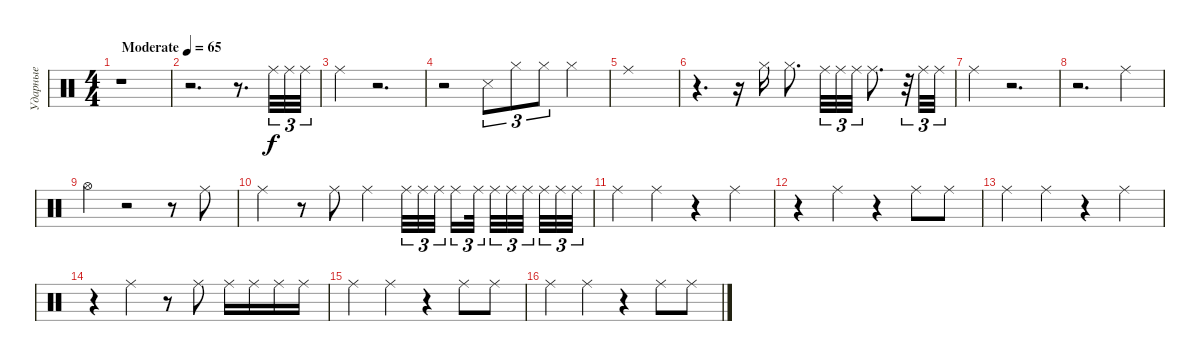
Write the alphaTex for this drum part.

\track ("Ударные" "Ударные") {instrument percussion}
\staff {score}
\articulation defaults
\ts (4 4)
\tempo (65 "Moderate")
\clef neutral
\ks c
r.1{dy f} |
r.2{d} r.8{d} "Ride (middle)".32{tu (3 2)} "Ride (middle)".32{tu (3 2)} "Ride (middle)".32{tu (3 2)} |
"Ride (middle)".4 r.2{d} |
r.2 "Snare (side stick) 3".8{tu (3 2)} "Hi-Hat (closed)".8{tu (3 2)} "Hi-Hat (closed)".8{tu (3 2)} "Hi-Hat (closed)".4 |
"Ride (middle)".1 |
r.4{d} r.16 "Hi-Hat (closed)".16 "Hi-Hat (closed)".8{d} "Ride (middle)".32{tu (3 2)} "Ride (middle)".32{tu (3 2)} "Ride (middle)".32{tu (3 2)} "Ride (middle)".8{d} r.32{tu (3 2)} "Ride (middle)".32{tu (3 2)} "Ride (middle)".32{tu (3 2)} |
"Ride (middle)".4 r.2{d} |
r.2{d} "Ride (middle)".4 |
"Hi-Hat (open)".4 r.2 r.8 "Ride (middle)".8 |
"Ride (middle)".4 r.8 "Ride (middle)".8 "Ride (middle)".4 "Ride (middle)".32{tu (3 2)} "Ride (middle)".32{tu (3 2)} "Ride (middle)".32{tu (3 2) beam splitsecondary} "Ride (middle)".16{tu (3 2)} "Ride (middle)".32{tu (3 2) beam splitsecondary} "Ride (middle)".32{tu (3 2)} "Ride (middle)".32{tu (3 2)} "Ride (middle)".32{tu (3 2) beam splitsecondary} "Ride (middle)".32{tu (3 2)} "Ride (middle)".32{tu (3 2)} "Ride (middle)".32{tu (3 2)} |
"Ride (middle)".4 "Ride (middle)".4 r.4 "Ride (middle)".4 |
r.4 "Ride (middle)".4 r.4 "Ride (middle)".8 "Ride (middle)".8 |
"Ride (middle)".4 "Ride (middle)".4 r.4 "Ride (middle)".4 |
r.4 "Ride (middle)".4 r.8 "Ride (middle)".8 "Ride (middle)".16 "Ride (middle)".16 "Ride (middle)".16 "Ride (middle)".16 |
"Ride (middle)".4 "Ride (middle)".4 r.4 "Ride (middle)".8 "Ride (middle)".8 |
"Ride (middle)".4 "Ride (middle)".4 r.4 "Ride (middle)".8 "Ride (middle)".8
